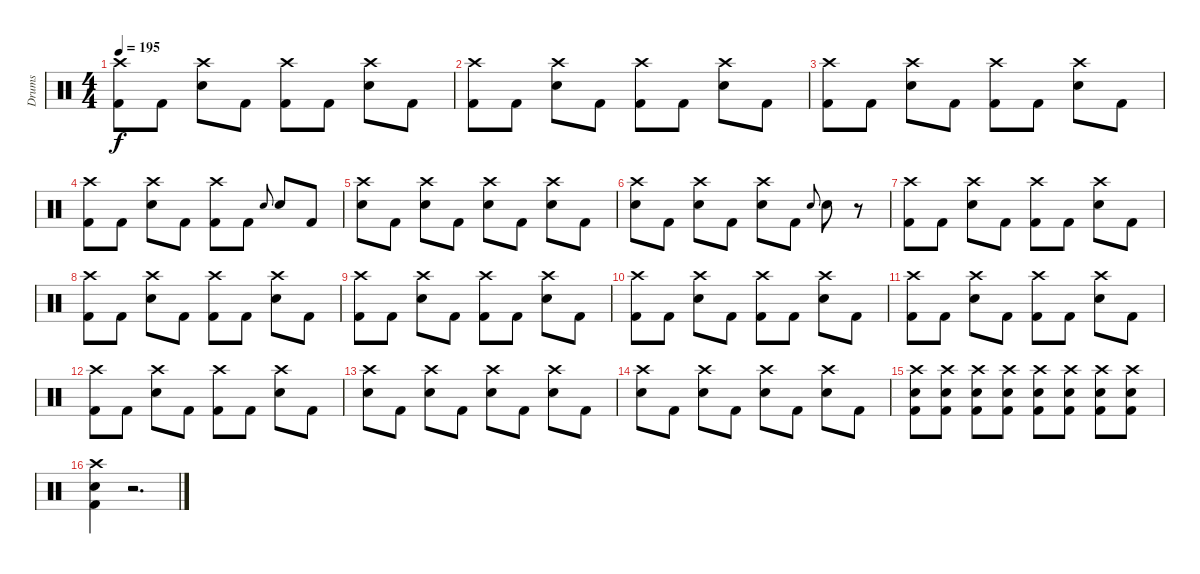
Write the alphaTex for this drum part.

\track ("Drums" "Drums") {instrument percussion}
\staff {score}
\articulation defaults
\ts (4 4)
\tempo 195
\clef neutral
\ks c
("Crash high (hit)" "Kick (hit) 2").8{dy f} "Kick (hit) 2".8 ("Crash high (hit)" "Electric Snare (hit)").8 "Kick (hit) 2".8 ("Crash high (hit)" "Kick (hit) 2").8 "Kick (hit) 2".8 ("Crash high (hit)" "Electric Snare (hit)").8 "Kick (hit) 2".8 |
("Crash high (hit)" "Kick (hit) 2").8 "Kick (hit) 2".8 ("Crash high (hit)" "Electric Snare (hit)").8 "Kick (hit) 2".8 ("Crash high (hit)" "Kick (hit) 2").8 "Kick (hit) 2".8 ("Crash high (hit)" "Electric Snare (hit)").8 "Kick (hit) 2".8 |
("Crash high (hit)" "Kick (hit) 2").8 "Kick (hit) 2".8 ("Crash high (hit)" "Electric Snare (hit)").8 "Kick (hit) 2".8 ("Crash high (hit)" "Kick (hit) 2").8 "Kick (hit) 2".8 ("Crash high (hit)" "Electric Snare (hit)").8 "Kick (hit) 2".8 |
("Crash high (hit)" "Kick (hit) 2").8 "Kick (hit) 2".8 ("Crash high (hit)" "Electric Snare (hit)").8 "Kick (hit) 2".8 ("Crash high (hit)" "Kick (hit) 2").8 "Kick (hit) 2".8 "Electric Snare (hit)".8{gr onbeat} "Electric Snare (hit)".8 "Kick (hit) 2".8 |
("Crash high (hit)" "Electric Snare (hit)").8 "Kick (hit) 2".8 ("Crash high (hit)" "Electric Snare (hit)").8 "Kick (hit) 2".8 ("Crash high (hit)" "Electric Snare (hit)").8 "Kick (hit) 2".8 ("Crash high (hit)" "Electric Snare (hit)").8 "Kick (hit) 2".8 |
("Crash high (hit)" "Electric Snare (hit)").8 "Kick (hit) 2".8 ("Crash high (hit)" "Electric Snare (hit)").8 "Kick (hit) 2".8 ("Crash high (hit)" "Electric Snare (hit)").8 "Kick (hit) 2".8 "Electric Snare (hit)".8{gr onbeat} "Electric Snare (hit)".8 r.8 |
("Crash high (hit)" "Kick (hit) 2").8 "Kick (hit) 2".8 ("Crash high (hit)" "Electric Snare (hit)").8 "Kick (hit) 2".8 ("Crash high (hit)" "Kick (hit) 2").8 "Kick (hit) 2".8 ("Crash high (hit)" "Electric Snare (hit)").8 "Kick (hit) 2".8 |
("Crash high (hit)" "Kick (hit) 2").8 "Kick (hit) 2".8 ("Crash high (hit)" "Electric Snare (hit)").8 "Kick (hit) 2".8 ("Crash high (hit)" "Kick (hit) 2").8 "Kick (hit) 2".8 ("Crash high (hit)" "Electric Snare (hit)").8 "Kick (hit) 2".8 |
("Crash high (hit)" "Kick (hit) 2").8 "Kick (hit) 2".8 ("Crash high (hit)" "Electric Snare (hit)").8 "Kick (hit) 2".8 ("Crash high (hit)" "Kick (hit) 2").8 "Kick (hit) 2".8 ("Crash high (hit)" "Electric Snare (hit)").8 "Kick (hit) 2".8 |
("Crash high (hit)" "Kick (hit) 2").8 "Kick (hit) 2".8 ("Crash high (hit)" "Electric Snare (hit)").8 "Kick (hit) 2".8 ("Crash high (hit)" "Kick (hit) 2").8 "Kick (hit) 2".8 ("Crash high (hit)" "Electric Snare (hit)").8 "Kick (hit) 2".8 |
("Crash high (hit)" "Kick (hit) 2").8 "Kick (hit) 2".8 ("Crash high (hit)" "Electric Snare (hit)").8 "Kick (hit) 2".8 ("Crash high (hit)" "Kick (hit) 2").8 "Kick (hit) 2".8 ("Crash high (hit)" "Electric Snare (hit)").8 "Kick (hit) 2".8 |
("Crash high (hit)" "Kick (hit) 2").8 "Kick (hit) 2".8 ("Crash high (hit)" "Electric Snare (hit)").8 "Kick (hit) 2".8 ("Crash high (hit)" "Kick (hit) 2").8 "Kick (hit) 2".8 ("Crash high (hit)" "Electric Snare (hit)").8 "Kick (hit) 2".8 |
("Crash high (hit)" "Electric Snare (hit)").8 "Kick (hit) 2".8 ("Crash high (hit)" "Electric Snare (hit)").8 "Kick (hit) 2".8 ("Crash high (hit)" "Electric Snare (hit)").8 "Kick (hit) 2".8 ("Crash high (hit)" "Electric Snare (hit)").8 "Kick (hit) 2".8 |
("Crash high (hit)" "Electric Snare (hit)").8 "Kick (hit) 2".8 ("Crash high (hit)" "Electric Snare (hit)").8 "Kick (hit) 2".8 ("Crash high (hit)" "Electric Snare (hit)").8 "Kick (hit) 2".8 ("Crash high (hit)" "Electric Snare (hit)").8 "Kick (hit) 2".8 |
("Crash high (hit)" "Electric Snare (hit)" "Kick (hit) 2").8 ("Crash high (hit)" "Electric Snare (hit)" "Kick (hit) 2").8 ("Crash high (hit)" "Electric Snare (hit)" "Kick (hit) 2").8 ("Crash high (hit)" "Electric Snare (hit)" "Kick (hit) 2").8 ("Crash high (hit)" "Electric Snare (hit)" "Kick (hit) 2").8 ("Crash high (hit)" "Electric Snare (hit)" "Kick (hit) 2").8 ("Crash high (hit)" "Electric Snare (hit)" "Kick (hit) 2").8 ("Crash high (hit)" "Electric Snare (hit)" "Kick (hit) 2").8 |
("Crash high (hit)" "Electric Snare (hit)" "Kick (hit) 2").4 r.2{d}
